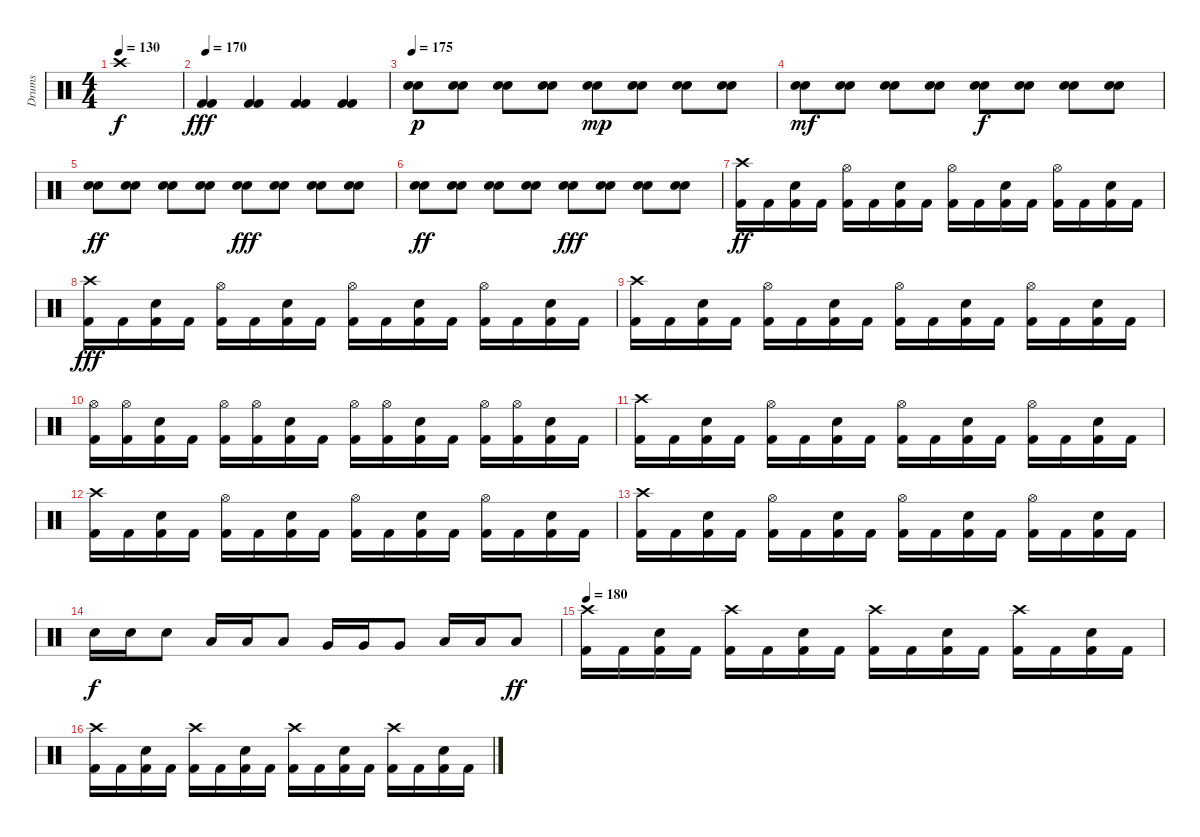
\track ("Drums" "Drums") {instrument percussion}
\staff {score}
\articulation defaults
\ts (4 4)
\tempo 130
\clef neutral
\ks c "Crash high (hit)".1{dy f}
|
\tempo 130
\tempo 170
("Kick (hit) 2" "Kick (hit) 2").4{dy fff} ("Kick (hit) 2" "Kick (hit) 2").4 ("Kick (hit) 2" "Kick (hit) 2").4 ("Kick (hit) 2" "Kick (hit) 2").4 |
\tempo 175
("Snare (hit) 2" "Snare (hit) 2").8{dy p} ("Snare (hit) 2" "Snare (hit) 2").8 ("Snare (hit) 2" "Snare (hit) 2").8 ("Snare (hit) 2" "Snare (hit) 2").8 ("Snare (hit) 2" "Snare (hit) 2").8{dy mp} ("Snare (hit) 2" "Snare (hit) 2").8 ("Snare (hit) 2" "Snare (hit) 2").8 ("Snare (hit) 2" "Snare (hit) 2").8 |
("Snare (hit) 2" "Snare (hit) 2").8{dy mf} ("Snare (hit) 2" "Snare (hit) 2").8 ("Snare (hit) 2" "Snare (hit) 2").8 ("Snare (hit) 2" "Snare (hit) 2").8 ("Snare (hit) 2" "Snare (hit) 2").8{dy f} ("Snare (hit) 2" "Snare (hit) 2").8 ("Snare (hit) 2" "Snare (hit) 2").8 ("Snare (hit) 2" "Snare (hit) 2").8 |
("Snare (hit) 2" "Snare (hit) 2").8{dy ff} ("Snare (hit) 2" "Snare (hit) 2").8 ("Snare (hit) 2" "Snare (hit) 2").8 ("Snare (hit) 2" "Snare (hit) 2").8 ("Snare (hit) 2" "Snare (hit) 2").8{dy fff} ("Snare (hit) 2" "Snare (hit) 2").8 ("Snare (hit) 2" "Snare (hit) 2").8 ("Snare (hit) 2" "Snare (hit) 2").8 |
("Snare (hit) 2" "Snare (hit) 2").8{dy ff volume 16} ("Snare (hit) 2" "Snare (hit) 2").8 ("Snare (hit) 2" "Snare (hit) 2").8 ("Snare (hit) 2" "Snare (hit) 2").8 ("Snare (hit) 2" "Snare (hit) 2").8{dy fff} ("Snare (hit) 2" "Snare (hit) 2").8 ("Snare (hit) 2" "Snare (hit) 2").8 ("Snare (hit) 2" "Snare (hit) 2").8 |
("Crash high (hit)" "Kick (hit) 2").16{dy ff volume 13} "Kick (hit) 2".16 ("Snare (hit) 2" "Kick (hit) 2").16 "Kick (hit) 2".16 ("Hi-Hat (open)" "Kick (hit) 2").16 "Kick (hit) 2".16 ("Snare (hit) 2" "Kick (hit) 2").16 "Kick (hit) 2".16 ("Hi-Hat (open)" "Kick (hit) 2").16 "Kick (hit) 2".16 ("Snare (hit) 2" "Kick (hit) 2").16 "Kick (hit) 2".16 ("Hi-Hat (open)" "Kick (hit) 2").16 "Kick (hit) 2".16 ("Snare (hit) 2" "Kick (hit) 2").16 "Kick (hit) 2".16 |
("Crash high (hit)" "Kick (hit) 2").16{dy fff} "Kick (hit) 2".16 ("Snare (hit) 2" "Kick (hit) 2").16 "Kick (hit) 2".16 ("Hi-Hat (open)" "Kick (hit) 2").16 "Kick (hit) 2".16 ("Snare (hit) 2" "Kick (hit) 2").16 "Kick (hit) 2".16 ("Hi-Hat (open)" "Kick (hit) 2").16 "Kick (hit) 2".16 ("Snare (hit) 2" "Kick (hit) 2").16 "Kick (hit) 2".16 ("Hi-Hat (open)" "Kick (hit) 2").16 "Kick (hit) 2".16 ("Snare (hit) 2" "Kick (hit) 2").16 "Kick (hit) 2".16 |
("Crash high (hit)" "Kick (hit) 2").16 "Kick (hit) 2".16 ("Snare (hit) 2" "Kick (hit) 2").16 "Kick (hit) 2".16 ("Hi-Hat (open)" "Kick (hit) 2").16 "Kick (hit) 2".16 ("Snare (hit) 2" "Kick (hit) 2").16 "Kick (hit) 2".16 ("Hi-Hat (open)" "Kick (hit) 2").16 "Kick (hit) 2".16 ("Snare (hit) 2" "Kick (hit) 2").16 "Kick (hit) 2".16 ("Hi-Hat (open)" "Kick (hit) 2").16 "Kick (hit) 2".16 ("Snare (hit) 2" "Kick (hit) 2").16 "Kick (hit) 2".16 |
("Hi-Hat (open)" "Kick (hit) 2").16 ("Hi-Hat (open)" "Kick (hit) 2").16 ("Snare (hit) 2" "Kick (hit) 2").16 "Kick (hit) 2".16 ("Hi-Hat (open)" "Kick (hit) 2").16 ("Hi-Hat (open)" "Kick (hit) 2").16 ("Snare (hit) 2" "Kick (hit) 2").16 "Kick (hit) 2".16 ("Hi-Hat (open)" "Kick (hit) 2").16 ("Hi-Hat (open)" "Kick (hit) 2").16 ("Snare (hit) 2" "Kick (hit) 2").16 "Kick (hit) 2".16 ("Hi-Hat (open)" "Kick (hit) 2").16 ("Hi-Hat (open)" "Kick (hit) 2").16 ("Snare (hit) 2" "Kick (hit) 2").16 "Kick (hit) 2".16 |
("Crash high (hit)" "Kick (hit) 2").16 "Kick (hit) 2".16 ("Snare (hit) 2" "Kick (hit) 2").16 "Kick (hit) 2".16 ("Hi-Hat (open)" "Kick (hit) 2").16 "Kick (hit) 2".16 ("Snare (hit) 2" "Kick (hit) 2").16 "Kick (hit) 2".16 ("Hi-Hat (open)" "Kick (hit) 2").16 "Kick (hit) 2".16 ("Snare (hit) 2" "Kick (hit) 2").16 "Kick (hit) 2".16 ("Hi-Hat (open)" "Kick (hit) 2").16 "Kick (hit) 2".16 ("Snare (hit) 2" "Kick (hit) 2").16 "Kick (hit) 2".16 |
("Crash high (hit)" "Kick (hit) 2").16 "Kick (hit) 2".16 ("Snare (hit) 2" "Kick (hit) 2").16 "Kick (hit) 2".16 ("Hi-Hat (open)" "Kick (hit) 2").16 "Kick (hit) 2".16 ("Snare (hit) 2" "Kick (hit) 2").16 "Kick (hit) 2".16 ("Hi-Hat (open)" "Kick (hit) 2").16 "Kick (hit) 2".16 ("Snare (hit) 2" "Kick (hit) 2").16 "Kick (hit) 2".16 ("Hi-Hat (open)" "Kick (hit) 2").16 "Kick (hit) 2".16 ("Snare (hit) 2" "Kick (hit) 2").16 "Kick (hit) 2".16 |
("Crash high (hit)" "Kick (hit) 2").16 "Kick (hit) 2".16 ("Snare (hit) 2" "Kick (hit) 2").16 "Kick (hit) 2".16 ("Hi-Hat (open)" "Kick (hit) 2").16 "Kick (hit) 2".16 ("Snare (hit) 2" "Kick (hit) 2").16 "Kick (hit) 2".16 ("Hi-Hat (open)" "Kick (hit) 2").16 "Kick (hit) 2".16 ("Snare (hit) 2" "Kick (hit) 2").16 "Kick (hit) 2".16 ("Hi-Hat (open)" "Kick (hit) 2").16 "Kick (hit) 2".16 ("Snare (hit) 2" "Kick (hit) 2").16 "Kick (hit) 2".16 |
"Snare (hit) 2".16{dy f} "Snare (hit) 2".16 "Snare (hit) 2".8 "Low Tom (hit)".16 "Low Tom (hit)".16 "Low Tom (hit)".8 "Very Low Tom (hit)".16 "Very Low Tom (hit)".16 "Very Low Tom (hit)".8 "Low Floor Tom (hit)".16 "Low Floor Tom (hit)".16 "Low Floor Tom (hit)".8{dy ff} |
\tempo 180
("Crash high (hit)" "Kick (hit) 2").16 "Kick (hit) 2".16 ("Snare (hit) 2" "Kick (hit) 2").16 "Kick (hit) 2".16 ("Crash high (hit)" "Kick (hit) 2").16 "Kick (hit) 2".16 ("Snare (hit) 2" "Kick (hit) 2").16 "Kick (hit) 2".16 ("Crash high (hit)" "Kick (hit) 2").16 "Kick (hit) 2".16 ("Snare (hit) 2" "Kick (hit) 2").16 "Kick (hit) 2".16 ("Crash high (hit)" "Kick (hit) 2").16 "Kick (hit) 2".16 ("Snare (hit) 2" "Kick (hit) 2").16 "Kick (hit) 2".16 |
("Crash high (hit)" "Kick (hit) 2").16 "Kick (hit) 2".16 ("Snare (hit) 2" "Kick (hit) 2").16 "Kick (hit) 2".16 ("Crash high (hit)" "Kick (hit) 2").16 "Kick (hit) 2".16 ("Snare (hit) 2" "Kick (hit) 2").16 "Kick (hit) 2".16 ("Crash high (hit)" "Kick (hit) 2").16 "Kick (hit) 2".16 ("Snare (hit) 2" "Kick (hit) 2").16 "Kick (hit) 2".16 ("Crash high (hit)" "Kick (hit) 2").16 "Kick (hit) 2".16 ("Snare (hit) 2" "Kick (hit) 2").16 "Kick (hit) 2".16
